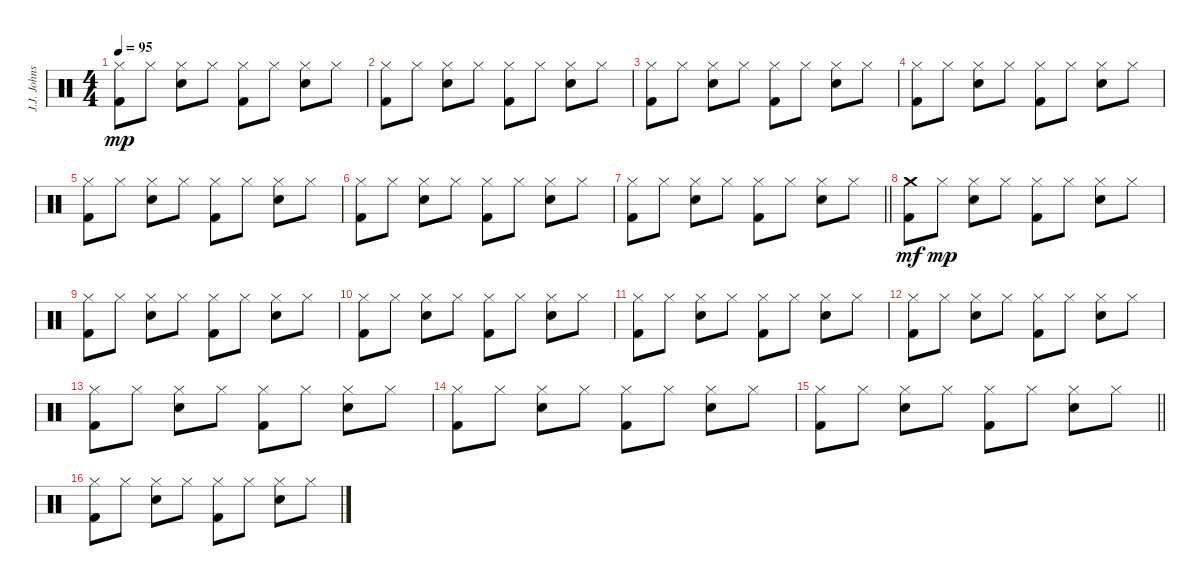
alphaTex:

\track ("J.J. Johnson" "J.J. Johns") {instrument percussion}
\staff {score}
\articulation defaults
\ts (4 4)
\tempo 95
\clef neutral
\ks c
("Hi-Hat (closed)" "Kick (hit) 2").8{dy mp} "Hi-Hat (closed)".8 ("Hi-Hat (closed)" "Electric Snare (hit)").8 "Hi-Hat (closed)".8 ("Hi-Hat (closed)" "Kick (hit) 2").8 "Hi-Hat (closed)".8 ("Hi-Hat (closed)" "Electric Snare (hit)").8 "Hi-Hat (closed)".8 |
("Hi-Hat (closed)" "Kick (hit) 2").8 "Hi-Hat (closed)".8 ("Hi-Hat (closed)" "Electric Snare (hit)").8 "Hi-Hat (closed)".8 ("Hi-Hat (closed)" "Kick (hit) 2").8 "Hi-Hat (closed)".8 ("Hi-Hat (closed)" "Electric Snare (hit)").8 "Hi-Hat (closed)".8 |
("Hi-Hat (closed)" "Kick (hit) 2").8 "Hi-Hat (closed)".8 ("Hi-Hat (closed)" "Electric Snare (hit)").8 "Hi-Hat (closed)".8 ("Hi-Hat (closed)" "Kick (hit) 2").8 "Hi-Hat (closed)".8 ("Hi-Hat (closed)" "Electric Snare (hit)").8 "Hi-Hat (closed)".8 |
("Hi-Hat (closed)" "Kick (hit) 2").8 "Hi-Hat (closed)".8 ("Hi-Hat (closed)" "Electric Snare (hit)").8 "Hi-Hat (closed)".8 ("Hi-Hat (closed)" "Kick (hit) 2").8 "Hi-Hat (closed)".8 ("Hi-Hat (closed)" "Electric Snare (hit)").8 "Hi-Hat (closed)".8 |
("Hi-Hat (closed)" "Kick (hit) 2").8 "Hi-Hat (closed)".8 ("Hi-Hat (closed)" "Electric Snare (hit)").8 "Hi-Hat (closed)".8 ("Hi-Hat (closed)" "Kick (hit) 2").8 "Hi-Hat (closed)".8 ("Hi-Hat (closed)" "Electric Snare (hit)").8 "Hi-Hat (closed)".8 |
("Hi-Hat (closed)" "Kick (hit) 2").8 "Hi-Hat (closed)".8 ("Hi-Hat (closed)" "Electric Snare (hit)").8 "Hi-Hat (closed)".8 ("Hi-Hat (closed)" "Kick (hit) 2").8 "Hi-Hat (closed)".8 ("Hi-Hat (closed)" "Electric Snare (hit)").8 "Hi-Hat (closed)".8 |
\barLineRight lightlight
("Hi-Hat (closed)" "Kick (hit) 2").8 "Hi-Hat (closed)".8 ("Hi-Hat (closed)" "Electric Snare (hit)").8 "Hi-Hat (closed)".8 ("Hi-Hat (closed)" "Kick (hit) 2").8 "Hi-Hat (closed)".8 ("Hi-Hat (closed)" "Electric Snare (hit)").8 "Hi-Hat (closed)".8 |
("Crash medium (hit)" "Kick (hit) 2").8{dy mf} "Hi-Hat (closed)".8{dy mp} ("Hi-Hat (closed)" "Electric Snare (hit)").8 "Hi-Hat (closed)".8 ("Hi-Hat (closed)" "Kick (hit) 2").8 "Hi-Hat (closed)".8 ("Hi-Hat (closed)" "Electric Snare (hit)").8 "Hi-Hat (closed)".8 |
("Hi-Hat (closed)" "Kick (hit) 2").8 "Hi-Hat (closed)".8 ("Hi-Hat (closed)" "Electric Snare (hit)").8 "Hi-Hat (closed)".8 ("Hi-Hat (closed)" "Kick (hit) 2").8 "Hi-Hat (closed)".8 ("Hi-Hat (closed)" "Electric Snare (hit)").8 "Hi-Hat (closed)".8 |
("Hi-Hat (closed)" "Kick (hit) 2").8 "Hi-Hat (closed)".8 ("Hi-Hat (closed)" "Electric Snare (hit)").8 "Hi-Hat (closed)".8 ("Hi-Hat (closed)" "Kick (hit) 2").8 "Hi-Hat (closed)".8 ("Hi-Hat (closed)" "Electric Snare (hit)").8 "Hi-Hat (closed)".8 |
("Hi-Hat (closed)" "Kick (hit) 2").8 "Hi-Hat (closed)".8 ("Hi-Hat (closed)" "Electric Snare (hit)").8 "Hi-Hat (closed)".8 ("Hi-Hat (closed)" "Kick (hit) 2").8 "Hi-Hat (closed)".8 ("Hi-Hat (closed)" "Electric Snare (hit)").8 "Hi-Hat (closed)".8 |
("Hi-Hat (closed)" "Kick (hit) 2").8 "Hi-Hat (closed)".8 ("Hi-Hat (closed)" "Electric Snare (hit)").8 "Hi-Hat (closed)".8 ("Hi-Hat (closed)" "Kick (hit) 2").8 "Hi-Hat (closed)".8 ("Hi-Hat (closed)" "Electric Snare (hit)").8 "Hi-Hat (closed)".8 |
("Hi-Hat (closed)" "Kick (hit) 2").8 "Hi-Hat (closed)".8 ("Hi-Hat (closed)" "Electric Snare (hit)").8 "Hi-Hat (closed)".8 ("Hi-Hat (closed)" "Kick (hit) 2").8 "Hi-Hat (closed)".8 ("Hi-Hat (closed)" "Electric Snare (hit)").8 "Hi-Hat (closed)".8 |
("Hi-Hat (closed)" "Kick (hit) 2").8 "Hi-Hat (closed)".8 ("Hi-Hat (closed)" "Electric Snare (hit)").8 "Hi-Hat (closed)".8 ("Hi-Hat (closed)" "Kick (hit) 2").8 "Hi-Hat (closed)".8 ("Hi-Hat (closed)" "Electric Snare (hit)").8 "Hi-Hat (closed)".8 |
\barLineRight lightlight
("Hi-Hat (closed)" "Kick (hit) 2").8 "Hi-Hat (closed)".8 ("Hi-Hat (closed)" "Electric Snare (hit)").8 "Hi-Hat (closed)".8 ("Hi-Hat (closed)" "Kick (hit) 2").8 "Hi-Hat (closed)".8 ("Hi-Hat (closed)" "Electric Snare (hit)").8 "Hi-Hat (closed)".8 |
("Hi-Hat (closed)" "Kick (hit) 2").8 "Hi-Hat (closed)".8 ("Hi-Hat (closed)" "Electric Snare (hit)").8 "Hi-Hat (closed)".8 ("Hi-Hat (closed)" "Kick (hit) 2").8 "Hi-Hat (closed)".8 ("Hi-Hat (closed)" "Electric Snare (hit)").8 "Hi-Hat (closed)".8
